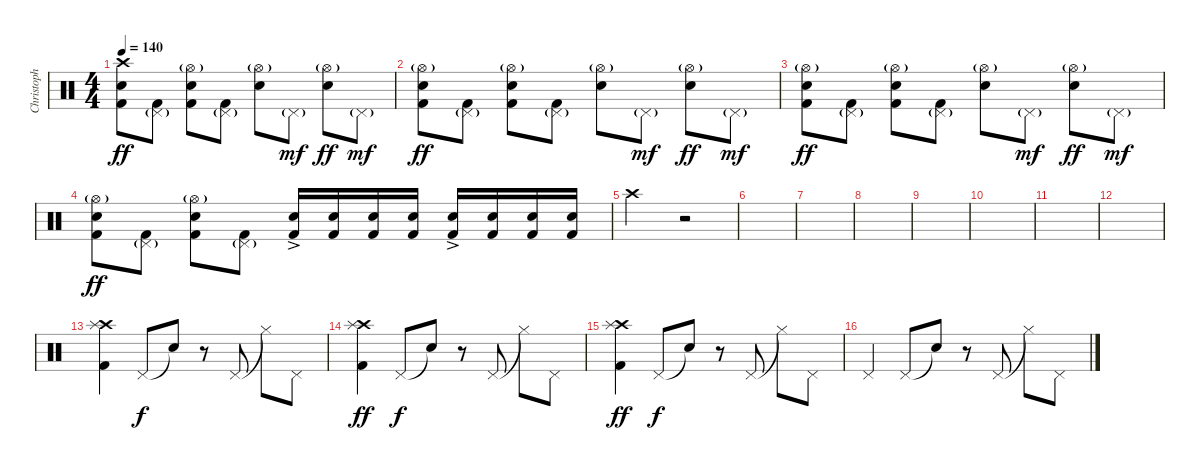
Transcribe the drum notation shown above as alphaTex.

\track ("Christoph" "Christoph") {instrument percussion}
\staff {score}
\articulation defaults
\ts (4 4)
\tempo 140
\clef neutral
\ks c
("Crash high (hit)" "Electric Snare (hit)" "Kick (hit) 2").8{dy ff} ("Pedal Hi-Hat (hit)"{g} "Kick (hit) 2").8 ("Hi-Hat (open)"{g} "Electric Snare (hit)" "Kick (hit) 2").8 ("Pedal Hi-Hat (hit)"{g} "Kick (hit) 2").8 ("Hi-Hat (open)"{g} "Electric Snare (hit)").8 "Pedal Hi-Hat (hit)"{g}.8{dy mf} ("Hi-Hat (open)"{g} "Electric Snare (hit)").8{dy ff} "Pedal Hi-Hat (hit)"{g}.8{dy mf} |
("Hi-Hat (open)"{g} "Electric Snare (hit)" "Kick (hit) 2").8{dy ff} ("Pedal Hi-Hat (hit)"{g} "Kick (hit) 2").8 ("Hi-Hat (open)"{g} "Electric Snare (hit)" "Kick (hit) 2").8 ("Pedal Hi-Hat (hit)"{g} "Kick (hit) 2").8 ("Hi-Hat (open)"{g} "Electric Snare (hit)").8 "Pedal Hi-Hat (hit)"{g}.8{dy mf} ("Hi-Hat (open)"{g} "Electric Snare (hit)").8{dy ff} "Pedal Hi-Hat (hit)"{g}.8{dy mf} |
("Hi-Hat (open)"{g} "Electric Snare (hit)" "Kick (hit) 2").8{dy ff} ("Pedal Hi-Hat (hit)"{g} "Kick (hit) 2").8 ("Hi-Hat (open)"{g} "Electric Snare (hit)" "Kick (hit) 2").8 ("Pedal Hi-Hat (hit)"{g} "Kick (hit) 2").8 ("Hi-Hat (open)"{g} "Electric Snare (hit)").8 "Pedal Hi-Hat (hit)"{g}.8{dy mf} ("Hi-Hat (open)"{g} "Electric Snare (hit)").8{dy ff} "Pedal Hi-Hat (hit)"{g}.8{dy mf} |
("Hi-Hat (open)"{g} "Electric Snare (hit)" "Kick (hit) 2").8{dy ff} ("Pedal Hi-Hat (hit)"{g} "Kick (hit) 2").8 ("Hi-Hat (open)"{g} "Electric Snare (hit)" "Kick (hit) 2").8 ("Pedal Hi-Hat (hit)"{g} "Kick (hit) 2").8 ("Electric Snare (hit)"{ac} "Kick (hit) 2").16 ("Electric Snare (hit)" "Kick (hit) 2").16 ("Electric Snare (hit)" "Kick (hit) 2").16 ("Electric Snare (hit)" "Kick (hit) 2").16 ("Electric Snare (hit)"{ac} "Kick (hit) 2").16 ("Electric Snare (hit)" "Kick (hit) 2").16 ("Electric Snare (hit)" "Kick (hit) 2").16 ("Electric Snare (hit)" "Kick (hit) 2").16 |
"Crash high (hit)".2 r.2 |
|
|
|
|
|
|
|
("Crash high (hit)" "Splash (hit)" "Kick (hit) 2").4 "Pedal Hi-Hat (hit)".8{dy f} "Snare (hit)"{t}.8 r.8 "Pedal Hi-Hat (hit)".8 "Hi-Hat (closed)"{t}.8 "Pedal Hi-Hat (hit)".8 |
("Crash high (hit)" "Splash (hit)" "Kick (hit) 2").4{dy ff} "Pedal Hi-Hat (hit)".8{dy f} "Snare (hit)"{t}.8 r.8 "Pedal Hi-Hat (hit)".8 "Hi-Hat (closed)"{t}.8 "Pedal Hi-Hat (hit)".8 |
("Crash high (hit)" "Splash (hit)" "Kick (hit) 2").4{dy ff} "Pedal Hi-Hat (hit)".8{dy f} "Snare (hit)"{t}.8 r.8 "Pedal Hi-Hat (hit)".8 "Hi-Hat (closed)"{t}.8 "Pedal Hi-Hat (hit)".8 |
"Pedal Hi-Hat (hit)".4 "Pedal Hi-Hat (hit)".8 "Snare (hit)"{t}.8 r.8 "Pedal Hi-Hat (hit)".8 "Hi-Hat (closed)"{t}.8 "Pedal Hi-Hat (hit)".8
